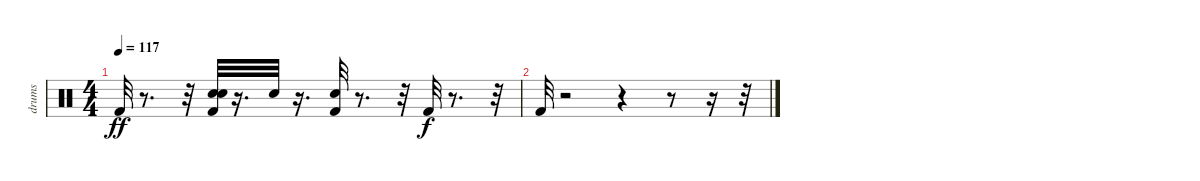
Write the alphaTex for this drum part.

\track ("drums   " "drums   ") {instrument percussion}
\staff {score}
\articulation defaults
\ts (4 4)
\tempo 117
\clef neutral
\ks c "Kick (hit) 2".32{dy ff}
r.8{d} r.32 ("Snare (hit) 2" "Kick (hit) 2" "Hand Clap (hit)").32 r.16{d} "Hand Clap (hit)".32 r.16{d} ("Kick (hit) 2" "Snare (hit) 2").32 r.8{d} r.32 "Kick (hit) 2".32{dy f} r.8{d} r.32 |
"Kick (hit) 2".32 r.2 r.4 r.8 r.16 r.32
